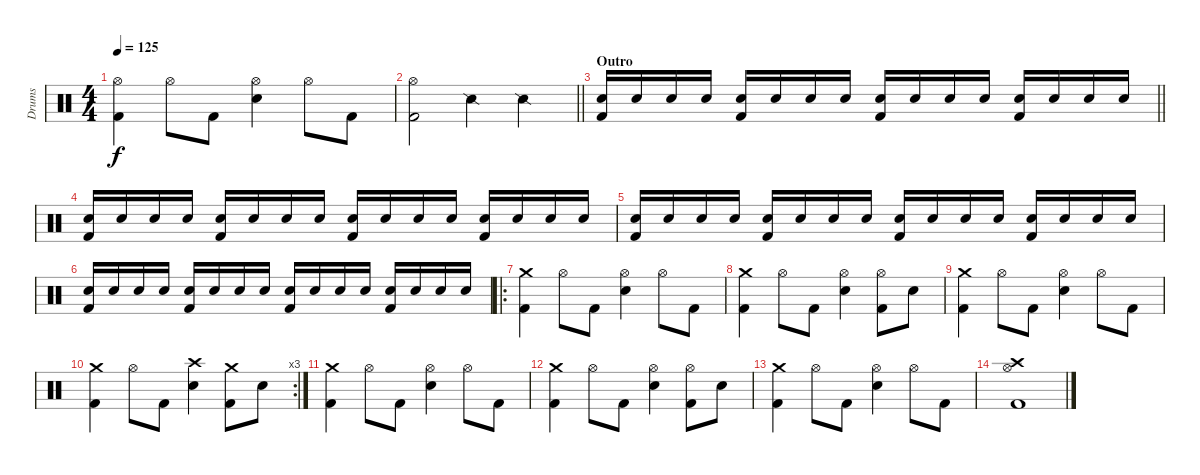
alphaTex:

\track ("Drums" "Drums") {instrument percussion}
\staff {score}
\articulation defaults
\ts (4 4)
\tempo 125
\clef neutral
\ks c
("Hi-Hat (open)" "Kick (hit) 2").4{dy f} "Hi-Hat (open)".8 "Kick (hit) 2".8 ("Hi-Hat (open)" "Snare (hit) 2").4 "Hi-Hat (open)".8 "Kick (hit) 2".8 |
\barLineRight lightlight
("Hi-Hat (open)" "Kick (hit) 2").2 "Snare (side stick) 2".4 "Snare (side stick) 2".4 |
\section ("" "Outro")
\barLineRight lightlight
("Snare (hit) 2" "Kick (hit) 2").16 "Snare (hit) 2".16 "Snare (hit) 2".16 "Snare (hit) 2".16 ("Snare (hit) 2" "Kick (hit) 2").16 "Snare (hit) 2".16 "Snare (hit) 2".16 "Snare (hit) 2".16 ("Snare (hit) 2" "Kick (hit) 2").16 "Snare (hit) 2".16 "Snare (hit) 2".16 "Snare (hit) 2".16 ("Snare (hit) 2" "Kick (hit) 2").16 "Snare (hit) 2".16 "Snare (hit) 2".16 "Snare (hit) 2".16 |
("Snare (hit) 2" "Kick (hit) 2").16 "Snare (hit) 2".16 "Snare (hit) 2".16 "Snare (hit) 2".16 ("Snare (hit) 2" "Kick (hit) 2").16 "Snare (hit) 2".16 "Snare (hit) 2".16 "Snare (hit) 2".16 ("Snare (hit) 2" "Kick (hit) 2").16 "Snare (hit) 2".16 "Snare (hit) 2".16 "Snare (hit) 2".16 ("Snare (hit) 2" "Kick (hit) 2").16 "Snare (hit) 2".16 "Snare (hit) 2".16 "Snare (hit) 2".16 |
("Snare (hit) 2" "Kick (hit) 2").16 "Snare (hit) 2".16 "Snare (hit) 2".16 "Snare (hit) 2".16 ("Snare (hit) 2" "Kick (hit) 2").16 "Snare (hit) 2".16 "Snare (hit) 2".16 "Snare (hit) 2".16 ("Snare (hit) 2" "Kick (hit) 2").16 "Snare (hit) 2".16 "Snare (hit) 2".16 "Snare (hit) 2".16 ("Snare (hit) 2" "Kick (hit) 2").16 "Snare (hit) 2".16 "Snare (hit) 2".16 "Snare (hit) 2".16 |
("Snare (hit) 2" "Kick (hit) 2").16 "Snare (hit) 2".16 "Snare (hit) 2".16 "Snare (hit) 2".16 ("Snare (hit) 2" "Kick (hit) 2").16 "Snare (hit) 2".16 "Snare (hit) 2".16 "Snare (hit) 2".16 ("Snare (hit) 2" "Kick (hit) 2").16 "Snare (hit) 2".16 "Snare (hit) 2".16 "Snare (hit) 2".16 ("Snare (hit) 2" "Kick (hit) 2").16 "Snare (hit) 2".16 "Snare (hit) 2".16 "Snare (hit) 2".16 |
\ro
("Crash medium (hit)" "Kick (hit) 2").4 "Hi-Hat (open)".8 "Kick (hit) 2".8 ("Hi-Hat (open)" "Snare (hit) 2").4 "Hi-Hat (open)".8 "Kick (hit) 2".8 |
("Crash medium (hit)" "Kick (hit) 2").4 "Hi-Hat (open)".8 "Kick (hit) 2".8 ("Hi-Hat (open)" "Snare (hit) 2").4 ("Hi-Hat (open)" "Kick (hit) 2").8 "Snare (hit) 2".8 |
("Crash medium (hit)" "Kick (hit) 2").4 "Hi-Hat (open)".8 "Kick (hit) 2".8 ("Hi-Hat (open)" "Snare (hit) 2").4 "Hi-Hat (open)".8 "Kick (hit) 2".8 |
\rc 3
("Crash medium (hit)" "Kick (hit) 2").4 "Hi-Hat (open)".8 "Kick (hit) 2".8 ("Crash high (hit)" "Snare (hit) 2").4 ("Crash medium (hit)" "Kick (hit) 2").8 "Snare (hit) 2".8 |
("Crash medium (hit)" "Kick (hit) 2").4 "Hi-Hat (open)".8 "Kick (hit) 2".8 ("Hi-Hat (open)" "Snare (hit) 2").4 "Hi-Hat (open)".8 "Kick (hit) 2".8 |
("Crash medium (hit)" "Kick (hit) 2").4 "Hi-Hat (open)".8 "Kick (hit) 2".8 ("Hi-Hat (open)" "Snare (hit) 2").4 ("Hi-Hat (open)" "Kick (hit) 2").8 "Snare (hit) 2".8 |
("Crash medium (hit)" "Kick (hit) 2").4 "Hi-Hat (open)".8 "Kick (hit) 2".8 ("Hi-Hat (open)" "Snare (hit) 2").4 "Hi-Hat (open)".8 "Kick (hit) 2".8 |
("Hi-Hat (open)" "Crash high (hit)" "Kick (hit) 2").1
